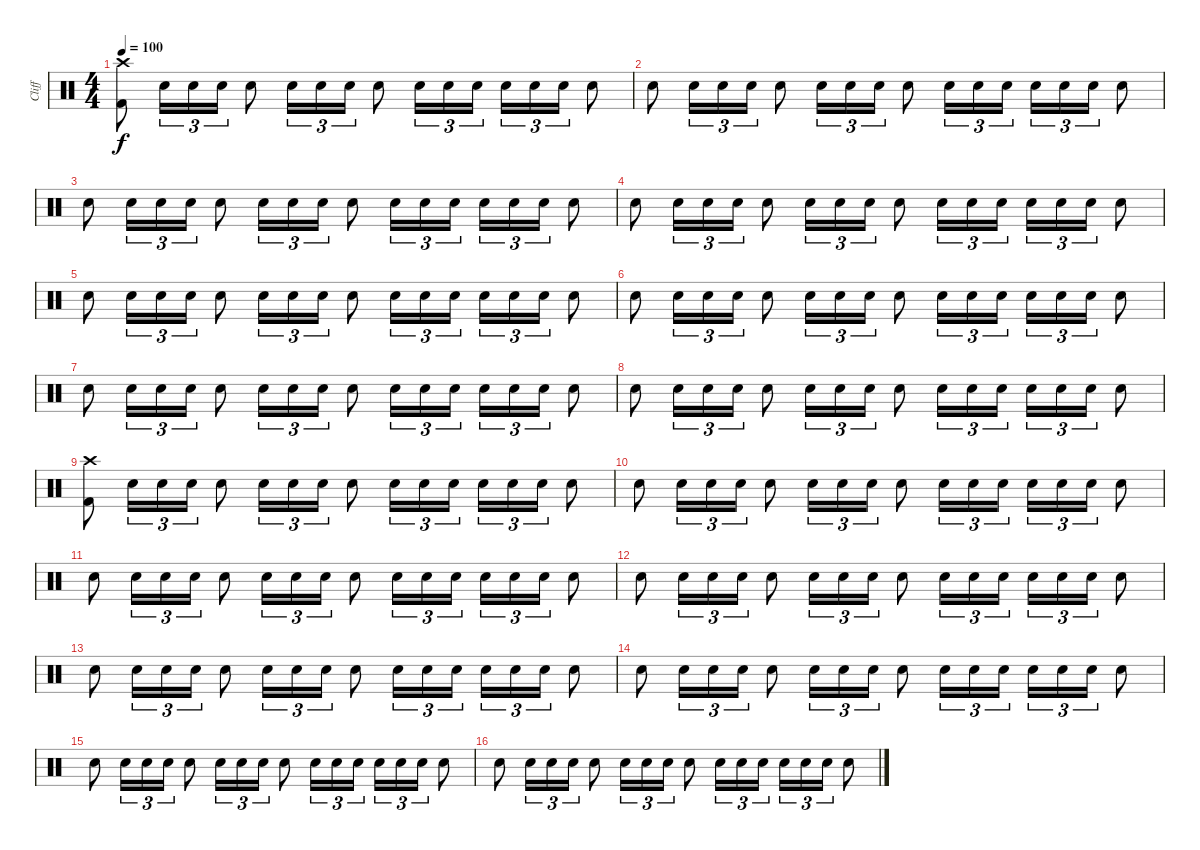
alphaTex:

\track ("Cliff " "Cliff ") {instrument percussion}
\staff {score}
\articulation defaults
\ts (4 4)
\tempo 100
\clef neutral
\ks c
("Crash high (hit)" "Kick (hit) 2").8{dy f} "Snare (hit) 2".16{tu (3 2)} "Snare (hit) 2".16{tu (3 2)} "Snare (hit) 2".16{tu (3 2)} "Snare (hit) 2".8 "Snare (hit) 2".16{tu (3 2)} "Snare (hit) 2".16{tu (3 2)} "Snare (hit) 2".16{tu (3 2)} "Snare (hit) 2".8 "Snare (hit) 2".16{tu (3 2)} "Snare (hit) 2".16{tu (3 2)} "Snare (hit) 2".16{tu (3 2)} "Snare (hit) 2".16{tu (3 2)} "Snare (hit) 2".16{tu (3 2)} "Snare (hit) 2".16{tu (3 2)} "Snare (hit) 2".8 |
"Snare (hit) 2".8 "Snare (hit) 2".16{tu (3 2)} "Snare (hit) 2".16{tu (3 2)} "Snare (hit) 2".16{tu (3 2)} "Snare (hit) 2".8 "Snare (hit) 2".16{tu (3 2)} "Snare (hit) 2".16{tu (3 2)} "Snare (hit) 2".16{tu (3 2)} "Snare (hit) 2".8 "Snare (hit) 2".16{tu (3 2)} "Snare (hit) 2".16{tu (3 2)} "Snare (hit) 2".16{tu (3 2)} "Snare (hit) 2".16{tu (3 2)} "Snare (hit) 2".16{tu (3 2)} "Snare (hit) 2".16{tu (3 2)} "Snare (hit) 2".8 |
"Snare (hit) 2".8 "Snare (hit) 2".16{tu (3 2)} "Snare (hit) 2".16{tu (3 2)} "Snare (hit) 2".16{tu (3 2)} "Snare (hit) 2".8 "Snare (hit) 2".16{tu (3 2)} "Snare (hit) 2".16{tu (3 2)} "Snare (hit) 2".16{tu (3 2)} "Snare (hit) 2".8 "Snare (hit) 2".16{tu (3 2)} "Snare (hit) 2".16{tu (3 2)} "Snare (hit) 2".16{tu (3 2)} "Snare (hit) 2".16{tu (3 2)} "Snare (hit) 2".16{tu (3 2)} "Snare (hit) 2".16{tu (3 2)} "Snare (hit) 2".8 |
"Snare (hit) 2".8 "Snare (hit) 2".16{tu (3 2)} "Snare (hit) 2".16{tu (3 2)} "Snare (hit) 2".16{tu (3 2)} "Snare (hit) 2".8 "Snare (hit) 2".16{tu (3 2)} "Snare (hit) 2".16{tu (3 2)} "Snare (hit) 2".16{tu (3 2)} "Snare (hit) 2".8 "Snare (hit) 2".16{tu (3 2)} "Snare (hit) 2".16{tu (3 2)} "Snare (hit) 2".16{tu (3 2)} "Snare (hit) 2".16{tu (3 2)} "Snare (hit) 2".16{tu (3 2)} "Snare (hit) 2".16{tu (3 2)} "Snare (hit) 2".8 |
"Snare (hit) 2".8 "Snare (hit) 2".16{tu (3 2)} "Snare (hit) 2".16{tu (3 2)} "Snare (hit) 2".16{tu (3 2)} "Snare (hit) 2".8 "Snare (hit) 2".16{tu (3 2)} "Snare (hit) 2".16{tu (3 2)} "Snare (hit) 2".16{tu (3 2)} "Snare (hit) 2".8 "Snare (hit) 2".16{tu (3 2)} "Snare (hit) 2".16{tu (3 2)} "Snare (hit) 2".16{tu (3 2)} "Snare (hit) 2".16{tu (3 2)} "Snare (hit) 2".16{tu (3 2)} "Snare (hit) 2".16{tu (3 2)} "Snare (hit) 2".8 |
"Snare (hit) 2".8 "Snare (hit) 2".16{tu (3 2)} "Snare (hit) 2".16{tu (3 2)} "Snare (hit) 2".16{tu (3 2)} "Snare (hit) 2".8 "Snare (hit) 2".16{tu (3 2)} "Snare (hit) 2".16{tu (3 2)} "Snare (hit) 2".16{tu (3 2)} "Snare (hit) 2".8 "Snare (hit) 2".16{tu (3 2)} "Snare (hit) 2".16{tu (3 2)} "Snare (hit) 2".16{tu (3 2)} "Snare (hit) 2".16{tu (3 2)} "Snare (hit) 2".16{tu (3 2)} "Snare (hit) 2".16{tu (3 2)} "Snare (hit) 2".8 |
"Snare (hit) 2".8 "Snare (hit) 2".16{tu (3 2)} "Snare (hit) 2".16{tu (3 2)} "Snare (hit) 2".16{tu (3 2)} "Snare (hit) 2".8 "Snare (hit) 2".16{tu (3 2)} "Snare (hit) 2".16{tu (3 2)} "Snare (hit) 2".16{tu (3 2)} "Snare (hit) 2".8 "Snare (hit) 2".16{tu (3 2)} "Snare (hit) 2".16{tu (3 2)} "Snare (hit) 2".16{tu (3 2)} "Snare (hit) 2".16{tu (3 2)} "Snare (hit) 2".16{tu (3 2)} "Snare (hit) 2".16{tu (3 2)} "Snare (hit) 2".8 |
"Snare (hit) 2".8 "Snare (hit) 2".16{tu (3 2)} "Snare (hit) 2".16{tu (3 2)} "Snare (hit) 2".16{tu (3 2)} "Snare (hit) 2".8 "Snare (hit) 2".16{tu (3 2)} "Snare (hit) 2".16{tu (3 2)} "Snare (hit) 2".16{tu (3 2)} "Snare (hit) 2".8 "Snare (hit) 2".16{tu (3 2)} "Snare (hit) 2".16{tu (3 2)} "Snare (hit) 2".16{tu (3 2)} "Snare (hit) 2".16{tu (3 2)} "Snare (hit) 2".16{tu (3 2)} "Snare (hit) 2".16{tu (3 2)} "Snare (hit) 2".8 |
("Crash high (hit)" "Kick (hit) 2").8 "Snare (hit) 2".16{tu (3 2)} "Snare (hit) 2".16{tu (3 2)} "Snare (hit) 2".16{tu (3 2)} "Snare (hit) 2".8 "Snare (hit) 2".16{tu (3 2)} "Snare (hit) 2".16{tu (3 2)} "Snare (hit) 2".16{tu (3 2)} "Snare (hit) 2".8 "Snare (hit) 2".16{tu (3 2)} "Snare (hit) 2".16{tu (3 2)} "Snare (hit) 2".16{tu (3 2)} "Snare (hit) 2".16{tu (3 2)} "Snare (hit) 2".16{tu (3 2)} "Snare (hit) 2".16{tu (3 2)} "Snare (hit) 2".8 |
"Snare (hit) 2".8 "Snare (hit) 2".16{tu (3 2)} "Snare (hit) 2".16{tu (3 2)} "Snare (hit) 2".16{tu (3 2)} "Snare (hit) 2".8 "Snare (hit) 2".16{tu (3 2)} "Snare (hit) 2".16{tu (3 2)} "Snare (hit) 2".16{tu (3 2)} "Snare (hit) 2".8 "Snare (hit) 2".16{tu (3 2)} "Snare (hit) 2".16{tu (3 2)} "Snare (hit) 2".16{tu (3 2)} "Snare (hit) 2".16{tu (3 2)} "Snare (hit) 2".16{tu (3 2)} "Snare (hit) 2".16{tu (3 2)} "Snare (hit) 2".8 |
"Snare (hit) 2".8 "Snare (hit) 2".16{tu (3 2)} "Snare (hit) 2".16{tu (3 2)} "Snare (hit) 2".16{tu (3 2)} "Snare (hit) 2".8 "Snare (hit) 2".16{tu (3 2)} "Snare (hit) 2".16{tu (3 2)} "Snare (hit) 2".16{tu (3 2)} "Snare (hit) 2".8 "Snare (hit) 2".16{tu (3 2)} "Snare (hit) 2".16{tu (3 2)} "Snare (hit) 2".16{tu (3 2)} "Snare (hit) 2".16{tu (3 2)} "Snare (hit) 2".16{tu (3 2)} "Snare (hit) 2".16{tu (3 2)} "Snare (hit) 2".8 |
"Snare (hit) 2".8 "Snare (hit) 2".16{tu (3 2)} "Snare (hit) 2".16{tu (3 2)} "Snare (hit) 2".16{tu (3 2)} "Snare (hit) 2".8 "Snare (hit) 2".16{tu (3 2)} "Snare (hit) 2".16{tu (3 2)} "Snare (hit) 2".16{tu (3 2)} "Snare (hit) 2".8 "Snare (hit) 2".16{tu (3 2)} "Snare (hit) 2".16{tu (3 2)} "Snare (hit) 2".16{tu (3 2)} "Snare (hit) 2".16{tu (3 2)} "Snare (hit) 2".16{tu (3 2)} "Snare (hit) 2".16{tu (3 2)} "Snare (hit) 2".8 |
"Snare (hit) 2".8 "Snare (hit) 2".16{tu (3 2)} "Snare (hit) 2".16{tu (3 2)} "Snare (hit) 2".16{tu (3 2)} "Snare (hit) 2".8 "Snare (hit) 2".16{tu (3 2)} "Snare (hit) 2".16{tu (3 2)} "Snare (hit) 2".16{tu (3 2)} "Snare (hit) 2".8 "Snare (hit) 2".16{tu (3 2)} "Snare (hit) 2".16{tu (3 2)} "Snare (hit) 2".16{tu (3 2)} "Snare (hit) 2".16{tu (3 2)} "Snare (hit) 2".16{tu (3 2)} "Snare (hit) 2".16{tu (3 2)} "Snare (hit) 2".8 |
"Snare (hit) 2".8 "Snare (hit) 2".16{tu (3 2)} "Snare (hit) 2".16{tu (3 2)} "Snare (hit) 2".16{tu (3 2)} "Snare (hit) 2".8 "Snare (hit) 2".16{tu (3 2)} "Snare (hit) 2".16{tu (3 2)} "Snare (hit) 2".16{tu (3 2)} "Snare (hit) 2".8 "Snare (hit) 2".16{tu (3 2)} "Snare (hit) 2".16{tu (3 2)} "Snare (hit) 2".16{tu (3 2)} "Snare (hit) 2".16{tu (3 2)} "Snare (hit) 2".16{tu (3 2)} "Snare (hit) 2".16{tu (3 2)} "Snare (hit) 2".8 |
"Snare (hit) 2".8 "Snare (hit) 2".16{tu (3 2)} "Snare (hit) 2".16{tu (3 2)} "Snare (hit) 2".16{tu (3 2)} "Snare (hit) 2".8 "Snare (hit) 2".16{tu (3 2)} "Snare (hit) 2".16{tu (3 2)} "Snare (hit) 2".16{tu (3 2)} "Snare (hit) 2".8 "Snare (hit) 2".16{tu (3 2)} "Snare (hit) 2".16{tu (3 2)} "Snare (hit) 2".16{tu (3 2)} "Snare (hit) 2".16{tu (3 2)} "Snare (hit) 2".16{tu (3 2)} "Snare (hit) 2".16{tu (3 2)} "Snare (hit) 2".8 |
"Snare (hit) 2".8 "Snare (hit) 2".16{tu (3 2)} "Snare (hit) 2".16{tu (3 2)} "Snare (hit) 2".16{tu (3 2)} "Snare (hit) 2".8 "Snare (hit) 2".16{tu (3 2)} "Snare (hit) 2".16{tu (3 2)} "Snare (hit) 2".16{tu (3 2)} "Snare (hit) 2".8 "Snare (hit) 2".16{tu (3 2)} "Snare (hit) 2".16{tu (3 2)} "Snare (hit) 2".16{tu (3 2)} "Snare (hit) 2".16{tu (3 2)} "Snare (hit) 2".16{tu (3 2)} "Snare (hit) 2".16{tu (3 2)} "Snare (hit) 2".8
